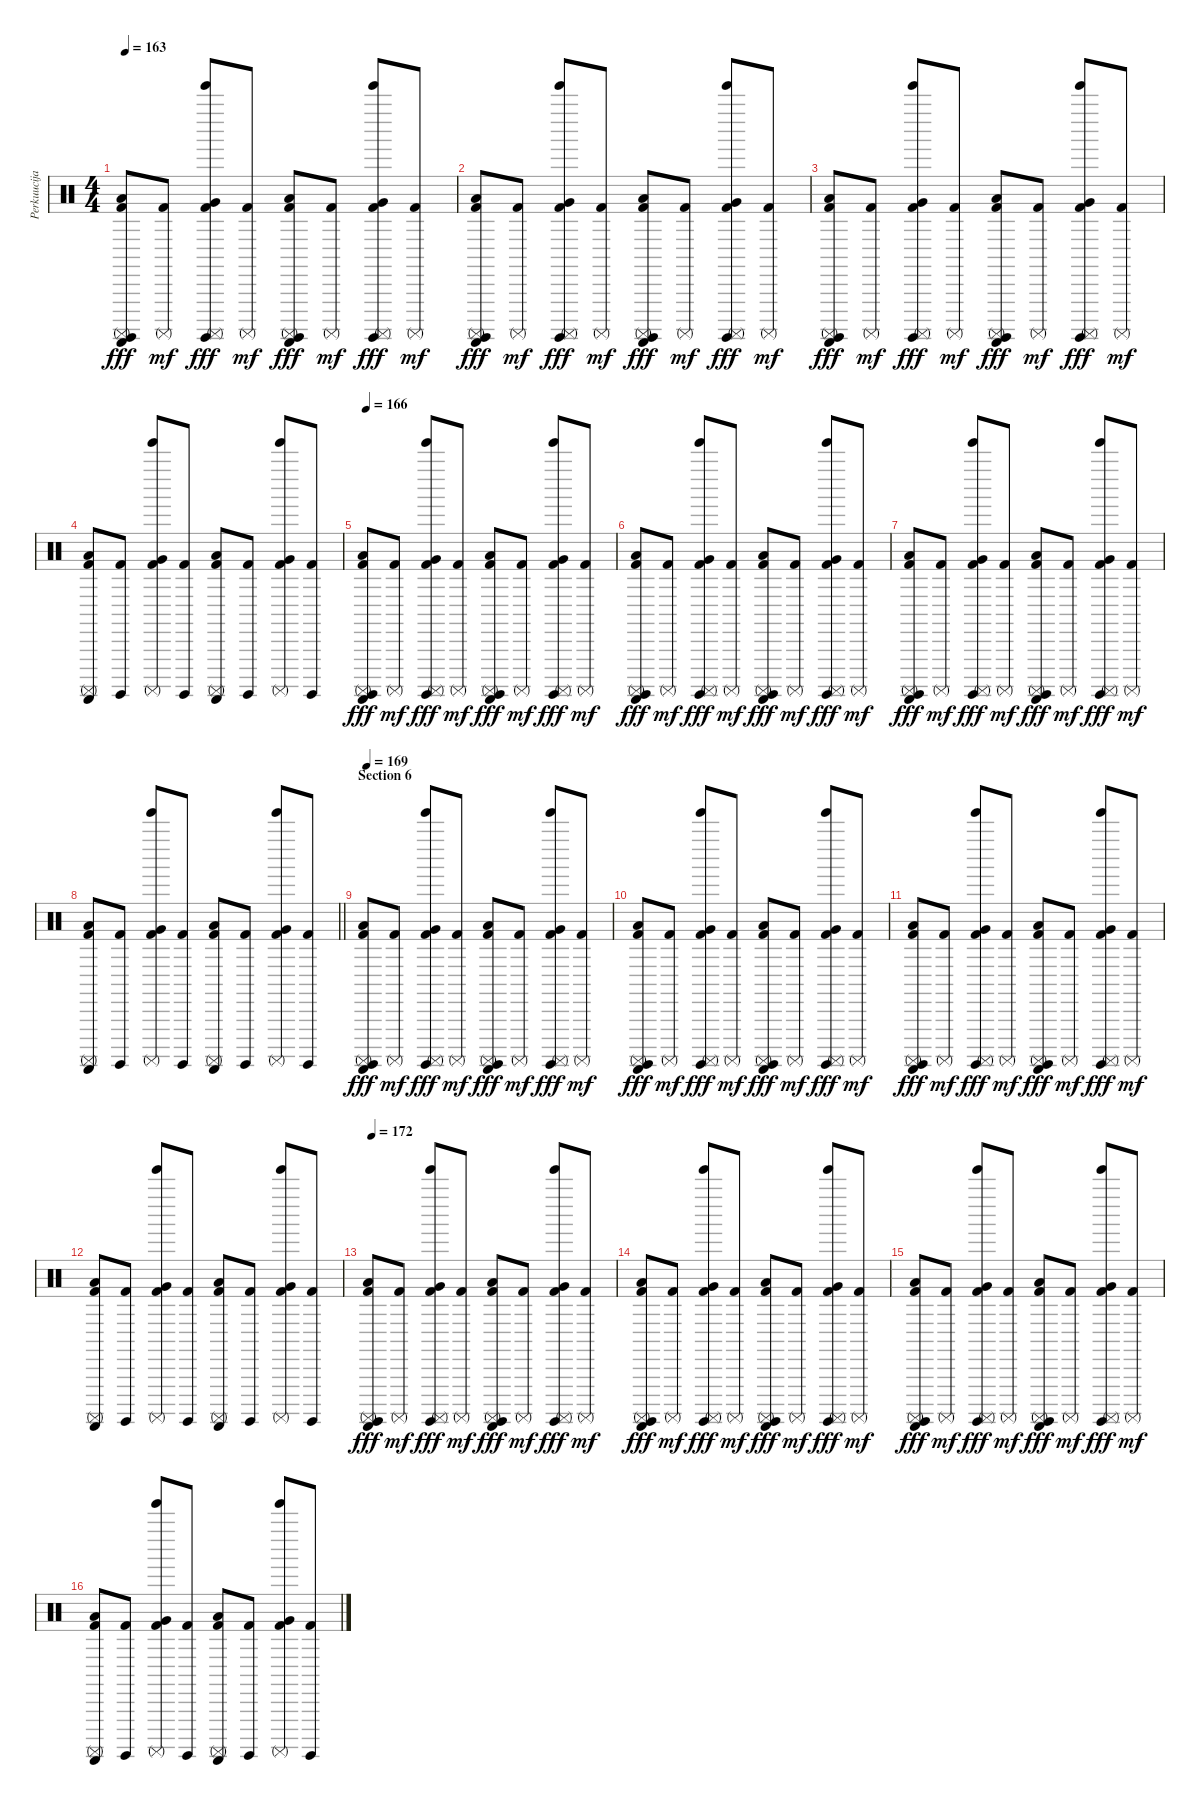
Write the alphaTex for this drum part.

\track ("Perkuucijas" "Perkuucija") {instrument percussion}
\staff {score}
\articulation defaults
\ts (4 4)
\tempo 163
\clef neutral
\ks c
("Kick (hit) 2" "Guiro (scrap-return)" "Low Floor Tom (hit)" "Surdo (hit)" "Surdo (mute)").8{dy fff} ("Kick (hit) 2" "Surdo (mute)").8{dy mf} ("Kick (hit) 2" "Tinkle Bell (hit)" "Very Low Tom (hit)" "Surdo (hit)" "Surdo (mute)").8{dy fff} ("Kick (hit) 2" "Surdo (mute)").8{dy mf} ("Kick (hit) 2" "Guiro (scrap-return)" "Low Tom (hit)" "Surdo (hit)" "Surdo (mute)").8{dy fff} ("Kick (hit) 2" "Surdo (mute)").8{dy mf} ("Kick (hit) 2" "Tinkle Bell (hit)" "Very Low Tom (hit)" "Surdo (hit)" "Surdo (mute)").8{dy fff} ("Kick (hit) 2" "Surdo (mute)").8{dy mf} |
("Kick (hit) 2" "Guiro (scrap-return)" "Low Floor Tom (hit)" "Surdo (hit)" "Surdo (mute)").8{dy fff} ("Kick (hit) 2" "Surdo (mute)").8{dy mf} ("Kick (hit) 2" "Tinkle Bell (hit)" "Very Low Tom (hit)" "Surdo (hit)" "Surdo (mute)").8{dy fff} ("Kick (hit) 2" "Surdo (mute)").8{dy mf} ("Kick (hit) 2" "Guiro (scrap-return)" "Low Tom (hit)" "Surdo (hit)" "Surdo (mute)").8{dy fff} ("Kick (hit) 2" "Surdo (mute)").8{dy mf} ("Kick (hit) 2" "Tinkle Bell (hit)" "Very Low Tom (hit)" "Surdo (hit)" "Surdo (mute)").8{dy fff} ("Kick (hit) 2" "Surdo (mute)").8{dy mf} |
("Kick (hit) 2" "Guiro (scrap-return)" "Low Floor Tom (hit)" "Surdo (hit)" "Surdo (mute)").8{dy fff} ("Kick (hit) 2" "Surdo (mute)").8{dy mf} ("Kick (hit) 2" "Tinkle Bell (hit)" "Very Low Tom (hit)" "Surdo (hit)" "Surdo (mute)").8{dy fff} ("Kick (hit) 2" "Surdo (mute)").8{dy mf} ("Kick (hit) 2" "Guiro (scrap-return)" "Low Tom (hit)" "Surdo (hit)" "Surdo (mute)").8{dy fff} ("Kick (hit) 2" "Surdo (mute)").8{dy mf} ("Kick (hit) 2" "Tinkle Bell (hit)" "Very Low Tom (hit)" "Surdo (hit)" "Surdo (mute)").8{dy fff} ("Kick (hit) 2" "Surdo (mute)").8{dy mf} |
("Kick (hit) 2" "Guiro (scrap-return)" "Low Floor Tom (hit)" "Surdo (mute)").8 ("Kick (hit) 2" "Surdo (hit)").8 ("Kick (hit) 2" "Tinkle Bell (hit)" "Very Low Tom (hit)" "Surdo (mute)").8 ("Kick (hit) 2" "Surdo (hit)").8 ("Kick (hit) 2" "Guiro (scrap-return)" "Low Tom (hit)" "Surdo (mute)").8 ("Kick (hit) 2" "Surdo (hit)").8 ("Kick (hit) 2" "Tinkle Bell (hit)" "Very Low Tom (hit)" "Surdo (mute)").8 ("Kick (hit) 2" "Surdo (hit)").8 |
\tempo 166
("Kick (hit) 2" "Guiro (scrap-return)" "Low Floor Tom (hit)" "Surdo (hit)" "Surdo (mute)").8{dy fff} ("Kick (hit) 2" "Surdo (mute)").8{dy mf} ("Kick (hit) 2" "Tinkle Bell (hit)" "Very Low Tom (hit)" "Surdo (hit)" "Surdo (mute)").8{dy fff} ("Kick (hit) 2" "Surdo (mute)").8{dy mf} ("Kick (hit) 2" "Guiro (scrap-return)" "Low Tom (hit)" "Surdo (hit)" "Surdo (mute)").8{dy fff} ("Kick (hit) 2" "Surdo (mute)").8{dy mf} ("Kick (hit) 2" "Tinkle Bell (hit)" "Very Low Tom (hit)" "Surdo (hit)" "Surdo (mute)").8{dy fff} ("Kick (hit) 2" "Surdo (mute)").8{dy mf} |
("Kick (hit) 2" "Guiro (scrap-return)" "Low Floor Tom (hit)" "Surdo (hit)" "Surdo (mute)").8{dy fff} ("Kick (hit) 2" "Surdo (mute)").8{dy mf} ("Kick (hit) 2" "Tinkle Bell (hit)" "Very Low Tom (hit)" "Surdo (hit)" "Surdo (mute)").8{dy fff} ("Kick (hit) 2" "Surdo (mute)").8{dy mf} ("Kick (hit) 2" "Guiro (scrap-return)" "Low Tom (hit)" "Surdo (hit)" "Surdo (mute)").8{dy fff} ("Kick (hit) 2" "Surdo (mute)").8{dy mf} ("Kick (hit) 2" "Tinkle Bell (hit)" "Very Low Tom (hit)" "Surdo (hit)" "Surdo (mute)").8{dy fff} ("Kick (hit) 2" "Surdo (mute)").8{dy mf} |
("Kick (hit) 2" "Guiro (scrap-return)" "Low Floor Tom (hit)" "Surdo (hit)" "Surdo (mute)").8{dy fff} ("Kick (hit) 2" "Surdo (mute)").8{dy mf} ("Kick (hit) 2" "Tinkle Bell (hit)" "Very Low Tom (hit)" "Surdo (hit)" "Surdo (mute)").8{dy fff} ("Kick (hit) 2" "Surdo (mute)").8{dy mf} ("Kick (hit) 2" "Guiro (scrap-return)" "Low Tom (hit)" "Surdo (hit)" "Surdo (mute)").8{dy fff} ("Kick (hit) 2" "Surdo (mute)").8{dy mf} ("Kick (hit) 2" "Tinkle Bell (hit)" "Very Low Tom (hit)" "Surdo (hit)" "Surdo (mute)").8{dy fff} ("Kick (hit) 2" "Surdo (mute)").8{dy mf} |
\barLineRight lightlight
("Kick (hit) 2" "Guiro (scrap-return)" "Low Floor Tom (hit)" "Surdo (mute)").8 ("Kick (hit) 2" "Surdo (hit)").8 ("Kick (hit) 2" "Tinkle Bell (hit)" "Very Low Tom (hit)" "Surdo (mute)").8 ("Kick (hit) 2" "Surdo (hit)").8 ("Kick (hit) 2" "Guiro (scrap-return)" "Low Tom (hit)" "Surdo (mute)").8 ("Kick (hit) 2" "Surdo (hit)").8 ("Kick (hit) 2" "Tinkle Bell (hit)" "Very Low Tom (hit)" "Surdo (mute)").8 ("Kick (hit) 2" "Surdo (hit)").8 |
\section ("" "Section 6")
\tempo 169
("Kick (hit) 2" "Guiro (scrap-return)" "Low Floor Tom (hit)" "Surdo (hit)" "Surdo (mute)").8{dy fff} ("Kick (hit) 2" "Surdo (mute)").8{dy mf} ("Kick (hit) 2" "Tinkle Bell (hit)" "Very Low Tom (hit)" "Surdo (hit)" "Surdo (mute)").8{dy fff} ("Kick (hit) 2" "Surdo (mute)").8{dy mf} ("Kick (hit) 2" "Guiro (scrap-return)" "Low Tom (hit)" "Surdo (hit)" "Surdo (mute)").8{dy fff} ("Kick (hit) 2" "Surdo (mute)").8{dy mf} ("Kick (hit) 2" "Tinkle Bell (hit)" "Very Low Tom (hit)" "Surdo (hit)" "Surdo (mute)").8{dy fff} ("Kick (hit) 2" "Surdo (mute)").8{dy mf} |
("Kick (hit) 2" "Guiro (scrap-return)" "Low Floor Tom (hit)" "Surdo (hit)" "Surdo (mute)").8{dy fff} ("Kick (hit) 2" "Surdo (mute)").8{dy mf} ("Kick (hit) 2" "Tinkle Bell (hit)" "Very Low Tom (hit)" "Surdo (hit)" "Surdo (mute)").8{dy fff} ("Kick (hit) 2" "Surdo (mute)").8{dy mf} ("Kick (hit) 2" "Guiro (scrap-return)" "Low Tom (hit)" "Surdo (hit)" "Surdo (mute)").8{dy fff} ("Kick (hit) 2" "Surdo (mute)").8{dy mf} ("Kick (hit) 2" "Tinkle Bell (hit)" "Very Low Tom (hit)" "Surdo (hit)" "Surdo (mute)").8{dy fff} ("Kick (hit) 2" "Surdo (mute)").8{dy mf} |
("Kick (hit) 2" "Guiro (scrap-return)" "Low Floor Tom (hit)" "Surdo (hit)" "Surdo (mute)").8{dy fff} ("Kick (hit) 2" "Surdo (mute)").8{dy mf} ("Kick (hit) 2" "Tinkle Bell (hit)" "Very Low Tom (hit)" "Surdo (hit)" "Surdo (mute)").8{dy fff} ("Kick (hit) 2" "Surdo (mute)").8{dy mf} ("Kick (hit) 2" "Guiro (scrap-return)" "Low Tom (hit)" "Surdo (hit)" "Surdo (mute)").8{dy fff} ("Kick (hit) 2" "Surdo (mute)").8{dy mf} ("Kick (hit) 2" "Tinkle Bell (hit)" "Very Low Tom (hit)" "Surdo (hit)" "Surdo (mute)").8{dy fff} ("Kick (hit) 2" "Surdo (mute)").8{dy mf} |
("Kick (hit) 2" "Guiro (scrap-return)" "Low Floor Tom (hit)" "Surdo (mute)").8 ("Kick (hit) 2" "Surdo (hit)").8 ("Kick (hit) 2" "Tinkle Bell (hit)" "Very Low Tom (hit)" "Surdo (mute)").8 ("Kick (hit) 2" "Surdo (hit)").8 ("Kick (hit) 2" "Guiro (scrap-return)" "Low Tom (hit)" "Surdo (mute)").8 ("Kick (hit) 2" "Surdo (hit)").8 ("Kick (hit) 2" "Tinkle Bell (hit)" "Very Low Tom (hit)" "Surdo (mute)").8 ("Kick (hit) 2" "Surdo (hit)").8 |
\tempo 172
("Kick (hit) 2" "Guiro (scrap-return)" "Low Floor Tom (hit)" "Surdo (hit)" "Surdo (mute)").8{dy fff} ("Kick (hit) 2" "Surdo (mute)").8{dy mf} ("Kick (hit) 2" "Tinkle Bell (hit)" "Very Low Tom (hit)" "Surdo (hit)" "Surdo (mute)").8{dy fff} ("Kick (hit) 2" "Surdo (mute)").8{dy mf} ("Kick (hit) 2" "Guiro (scrap-return)" "Low Tom (hit)" "Surdo (hit)" "Surdo (mute)").8{dy fff} ("Kick (hit) 2" "Surdo (mute)").8{dy mf} ("Kick (hit) 2" "Tinkle Bell (hit)" "Very Low Tom (hit)" "Surdo (hit)" "Surdo (mute)").8{dy fff} ("Kick (hit) 2" "Surdo (mute)").8{dy mf} |
("Kick (hit) 2" "Guiro (scrap-return)" "Low Floor Tom (hit)" "Surdo (hit)" "Surdo (mute)").8{dy fff} ("Kick (hit) 2" "Surdo (mute)").8{dy mf} ("Kick (hit) 2" "Tinkle Bell (hit)" "Very Low Tom (hit)" "Surdo (hit)" "Surdo (mute)").8{dy fff} ("Kick (hit) 2" "Surdo (mute)").8{dy mf} ("Kick (hit) 2" "Guiro (scrap-return)" "Low Tom (hit)" "Surdo (hit)" "Surdo (mute)").8{dy fff} ("Kick (hit) 2" "Surdo (mute)").8{dy mf} ("Kick (hit) 2" "Tinkle Bell (hit)" "Very Low Tom (hit)" "Surdo (hit)" "Surdo (mute)").8{dy fff} ("Kick (hit) 2" "Surdo (mute)").8{dy mf} |
("Kick (hit) 2" "Guiro (scrap-return)" "Low Floor Tom (hit)" "Surdo (hit)" "Surdo (mute)").8{dy fff} ("Kick (hit) 2" "Surdo (mute)").8{dy mf} ("Kick (hit) 2" "Tinkle Bell (hit)" "Very Low Tom (hit)" "Surdo (hit)" "Surdo (mute)").8{dy fff} ("Kick (hit) 2" "Surdo (mute)").8{dy mf} ("Kick (hit) 2" "Guiro (scrap-return)" "Low Tom (hit)" "Surdo (hit)" "Surdo (mute)").8{dy fff} ("Kick (hit) 2" "Surdo (mute)").8{dy mf} ("Kick (hit) 2" "Tinkle Bell (hit)" "Very Low Tom (hit)" "Surdo (hit)" "Surdo (mute)").8{dy fff} ("Kick (hit) 2" "Surdo (mute)").8{dy mf} |
("Kick (hit) 2" "Guiro (scrap-return)" "Low Floor Tom (hit)" "Surdo (mute)").8 ("Kick (hit) 2" "Surdo (hit)").8 ("Kick (hit) 2" "Tinkle Bell (hit)" "Very Low Tom (hit)" "Surdo (mute)").8 ("Kick (hit) 2" "Surdo (hit)").8 ("Kick (hit) 2" "Guiro (scrap-return)" "Low Tom (hit)" "Surdo (mute)").8 ("Kick (hit) 2" "Surdo (hit)").8 ("Kick (hit) 2" "Tinkle Bell (hit)" "Very Low Tom (hit)" "Surdo (mute)").8 ("Kick (hit) 2" "Surdo (hit)").8
